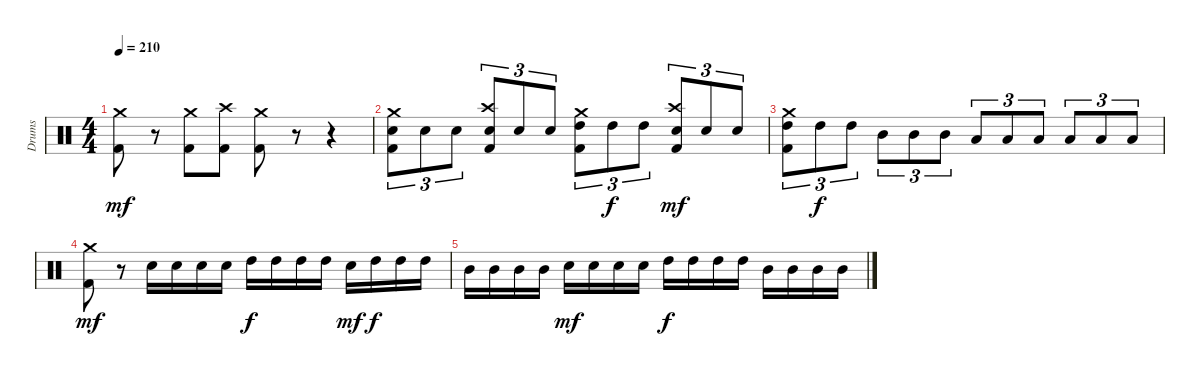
\track ("Drums" "Drums") {instrument percussion}
\staff {score}
\articulation defaults
\ts (4 4)
\tempo 210
\clef neutral
\ks c
("Crash medium (hit)" "Kick (hit) 2").8{dy mf} r.8 ("Crash medium (hit)" "Kick (hit) 2").8 ("Crash high (hit)" "Kick (hit) 2").8 ("Crash medium (hit)" "Kick (hit) 2").8 r.8 r.4 |
("Crash medium (hit)" "Electric Snare (hit)" "Kick (hit) 2").8{tu (3 2)} "Electric Snare (hit)".8{tu (3 2)} "Electric Snare (hit)".8{tu (3 2)} ("Crash high (hit)" "Electric Snare (hit)" "Kick (hit) 2").8{tu (3 2)} "Electric Snare (hit)".8{tu (3 2)} "Electric Snare (hit)".8{tu (3 2)} ("Crash medium (hit)" "High Tom (hit)" "Kick (hit) 2").8{tu (3 2)} "High Tom (hit)".8{tu (3 2) dy f} "High Tom (hit)".8{tu (3 2)} ("Crash high (hit)" "Electric Snare (hit)" "Kick (hit) 2").8{tu (3 2) dy mf} "Electric Snare (hit)".8{tu (3 2)} "Electric Snare (hit)".8{tu (3 2)} |
("Crash medium (hit)" "High Tom (hit)" "Kick (hit) 2").8{tu (3 2)} "High Tom (hit)".8{tu (3 2) dy f} "High Tom (hit)".8{tu (3 2)} "Mid Tom (hit)".8{tu (3 2)} "Mid Tom (hit)".8{tu (3 2)} "Mid Tom (hit)".8{tu (3 2)} "Low Tom (hit)".8{tu (3 2)} "Low Tom (hit)".8{tu (3 2)} "Low Tom (hit)".8{tu (3 2)} "Low Tom (hit)".8{tu (3 2)} "Low Tom (hit)".8{tu (3 2)} "Low Tom (hit)".8{tu (3 2)} |
("Crash medium (hit)" "Kick (hit) 2").8{dy mf} r.8 "Electric Snare (hit)".16 "Electric Snare (hit)".16 "Electric Snare (hit)".16 "Electric Snare (hit)".16 "High Tom (hit)".16{dy f} "High Tom (hit)".16 "High Tom (hit)".16 "High Tom (hit)".16 "Electric Snare (hit)".16{dy mf} "High Tom (hit)".16{dy f} "High Tom (hit)".16 "High Tom (hit)".16 |
"Mid Tom (hit)".16 "Mid Tom (hit)".16 "Mid Tom (hit)".16 "Mid Tom (hit)".16 "Electric Snare (hit)".16{dy mf} "Electric Snare (hit)".16 "Electric Snare (hit)".16 "Electric Snare (hit)".16 "High Tom (hit)".16{dy f} "High Tom (hit)".16 "High Tom (hit)".16 "High Tom (hit)".16 "Mid Tom (hit)".16 "Mid Tom (hit)".16 "Mid Tom (hit)".16 "Mid Tom (hit)".16
